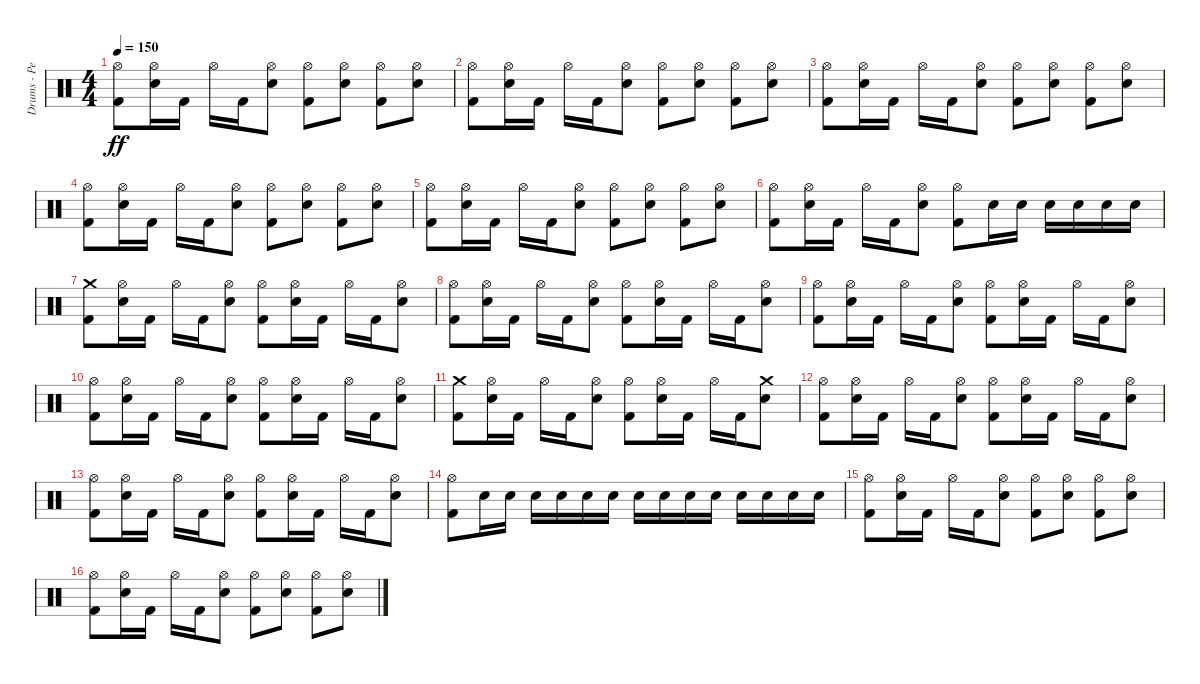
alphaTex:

\track ("Drums - Pete Finestone" "Drums - Pe") {instrument percussion}
\staff {score}
\articulation defaults
\ts (4 4)
\tempo 150
\clef neutral
\ks c
("Kick (hit) 2" "Hi-Hat (open)").8{dy ff} ("Electric Snare (hit)" "Hi-Hat (open)").16 "Kick (hit) 2".16 "Hi-Hat (open)".16 "Kick (hit) 2".16 ("Electric Snare (hit)" "Hi-Hat (open)").8 ("Kick (hit) 2" "Hi-Hat (open)").8 ("Electric Snare (hit)" "Hi-Hat (open)").8 ("Kick (hit) 2" "Hi-Hat (open)").8 ("Electric Snare (hit)" "Hi-Hat (open)").8 |
("Kick (hit) 2" "Hi-Hat (open)").8 ("Electric Snare (hit)" "Hi-Hat (open)").16 "Kick (hit) 2".16 "Hi-Hat (open)".16 "Kick (hit) 2".16 ("Electric Snare (hit)" "Hi-Hat (open)").8 ("Kick (hit) 2" "Hi-Hat (open)").8 ("Electric Snare (hit)" "Hi-Hat (open)").8 ("Kick (hit) 2" "Hi-Hat (open)").8 ("Electric Snare (hit)" "Hi-Hat (open)").8 |
("Kick (hit) 2" "Hi-Hat (open)").8 ("Electric Snare (hit)" "Hi-Hat (open)").16 "Kick (hit) 2".16 "Hi-Hat (open)".16 "Kick (hit) 2".16 ("Electric Snare (hit)" "Hi-Hat (open)").8 ("Kick (hit) 2" "Hi-Hat (open)").8 ("Electric Snare (hit)" "Hi-Hat (open)").8 ("Kick (hit) 2" "Hi-Hat (open)").8 ("Electric Snare (hit)" "Hi-Hat (open)").8 |
("Kick (hit) 2" "Hi-Hat (open)").8 ("Electric Snare (hit)" "Hi-Hat (open)").16 "Kick (hit) 2".16 "Hi-Hat (open)".16 "Kick (hit) 2".16 ("Electric Snare (hit)" "Hi-Hat (open)").8 ("Kick (hit) 2" "Hi-Hat (open)").8 ("Electric Snare (hit)" "Hi-Hat (open)").8 ("Kick (hit) 2" "Hi-Hat (open)").8 ("Electric Snare (hit)" "Hi-Hat (open)").8 |
("Kick (hit) 2" "Hi-Hat (open)").8 ("Electric Snare (hit)" "Hi-Hat (open)").16 "Kick (hit) 2".16 "Hi-Hat (open)".16 "Kick (hit) 2".16 ("Electric Snare (hit)" "Hi-Hat (open)").8 ("Kick (hit) 2" "Hi-Hat (open)").8 ("Electric Snare (hit)" "Hi-Hat (open)").8 ("Kick (hit) 2" "Hi-Hat (open)").8 ("Electric Snare (hit)" "Hi-Hat (open)").8 |
("Kick (hit) 2" "Hi-Hat (open)").8 ("Electric Snare (hit)" "Hi-Hat (open)").16 "Kick (hit) 2".16 "Hi-Hat (open)".16 "Kick (hit) 2".16 ("Electric Snare (hit)" "Hi-Hat (open)").8 ("Kick (hit) 2" "Hi-Hat (open)").8 "Electric Snare (hit)".16 "Electric Snare (hit)".16 "Electric Snare (hit)".16 "Electric Snare (hit)".16 "Electric Snare (hit)".16 "Electric Snare (hit)".16 |
("Crash medium (hit)" "Kick (hit) 2").8 ("Electric Snare (hit)" "Hi-Hat (open)").16 "Kick (hit) 2".16 "Hi-Hat (open)".16 "Kick (hit) 2".16 ("Electric Snare (hit)" "Hi-Hat (open)").8 ("Kick (hit) 2" "Hi-Hat (open)").8 ("Electric Snare (hit)" "Hi-Hat (open)").16 "Kick (hit) 2".16 "Hi-Hat (open)".16 "Kick (hit) 2".16 ("Electric Snare (hit)" "Hi-Hat (open)").8 |
("Kick (hit) 2" "Hi-Hat (open)").8 ("Electric Snare (hit)" "Hi-Hat (open)").16 "Kick (hit) 2".16 "Hi-Hat (open)".16 "Kick (hit) 2".16 ("Electric Snare (hit)" "Hi-Hat (open)").8 ("Kick (hit) 2" "Hi-Hat (open)").8 ("Electric Snare (hit)" "Hi-Hat (open)").16 "Kick (hit) 2".16 "Hi-Hat (open)".16 "Kick (hit) 2".16 ("Electric Snare (hit)" "Hi-Hat (open)").8 |
("Kick (hit) 2" "Hi-Hat (open)").8 ("Electric Snare (hit)" "Hi-Hat (open)").16 "Kick (hit) 2".16 "Hi-Hat (open)".16 "Kick (hit) 2".16 ("Electric Snare (hit)" "Hi-Hat (open)").8 ("Kick (hit) 2" "Hi-Hat (open)").8 ("Electric Snare (hit)" "Hi-Hat (open)").16 "Kick (hit) 2".16 "Hi-Hat (open)".16 "Kick (hit) 2".16 ("Electric Snare (hit)" "Hi-Hat (open)").8 |
("Kick (hit) 2" "Hi-Hat (open)").8 ("Electric Snare (hit)" "Hi-Hat (open)").16 "Kick (hit) 2".16 "Hi-Hat (open)".16 "Kick (hit) 2".16 ("Electric Snare (hit)" "Hi-Hat (open)").8 ("Kick (hit) 2" "Hi-Hat (open)").8 ("Electric Snare (hit)" "Hi-Hat (open)").16 "Kick (hit) 2".16 "Hi-Hat (open)".16 "Kick (hit) 2".16 ("Electric Snare (hit)" "Hi-Hat (open)").8 |
("Kick (hit) 2" "Crash medium (hit)").8 ("Electric Snare (hit)" "Hi-Hat (open)").16 "Kick (hit) 2".16 "Hi-Hat (open)".16 "Kick (hit) 2".16 ("Electric Snare (hit)" "Hi-Hat (open)").8 ("Kick (hit) 2" "Hi-Hat (open)").8 ("Electric Snare (hit)" "Hi-Hat (open)").16 "Kick (hit) 2".16 "Hi-Hat (open)".16 "Kick (hit) 2".16 ("Electric Snare (hit)" "Crash medium (hit)").8 |
("Kick (hit) 2" "Hi-Hat (open)").8 ("Electric Snare (hit)" "Hi-Hat (open)").16 "Kick (hit) 2".16 "Hi-Hat (open)".16 "Kick (hit) 2".16 ("Electric Snare (hit)" "Hi-Hat (open)").8 ("Kick (hit) 2" "Hi-Hat (open)").8 ("Electric Snare (hit)" "Hi-Hat (open)").16 "Kick (hit) 2".16 "Hi-Hat (open)".16 "Kick (hit) 2".16 ("Electric Snare (hit)" "Hi-Hat (open)").8 |
("Kick (hit) 2" "Hi-Hat (open)").8 ("Electric Snare (hit)" "Hi-Hat (open)").16 "Kick (hit) 2".16 "Hi-Hat (open)".16 "Kick (hit) 2".16 ("Electric Snare (hit)" "Hi-Hat (open)").8 ("Kick (hit) 2" "Hi-Hat (open)").8 ("Electric Snare (hit)" "Hi-Hat (open)").16 "Kick (hit) 2".16 "Hi-Hat (open)".16 "Kick (hit) 2".16 ("Electric Snare (hit)" "Hi-Hat (open)").8 |
("Kick (hit) 2" "Hi-Hat (open)").8 "Electric Snare (hit)".16 "Electric Snare (hit)".16 "Electric Snare (hit)".16 "Electric Snare (hit)".16 "Electric Snare (hit)".16 "Electric Snare (hit)".16 "Electric Snare (hit)".16 "Electric Snare (hit)".16 "Electric Snare (hit)".16 "Electric Snare (hit)".16 "Electric Snare (hit)".16 "Electric Snare (hit)".16 "Electric Snare (hit)".16 "Electric Snare (hit)".16 |
("Kick (hit) 2" "Hi-Hat (open)").8 ("Electric Snare (hit)" "Hi-Hat (open)").16 "Kick (hit) 2".16 "Hi-Hat (open)".16 "Kick (hit) 2".16 ("Electric Snare (hit)" "Hi-Hat (open)").8 ("Kick (hit) 2" "Hi-Hat (open)").8 ("Electric Snare (hit)" "Hi-Hat (open)").8 ("Kick (hit) 2" "Hi-Hat (open)").8 ("Electric Snare (hit)" "Hi-Hat (open)").8 |
("Kick (hit) 2" "Hi-Hat (open)").8 ("Electric Snare (hit)" "Hi-Hat (open)").16 "Kick (hit) 2".16 "Hi-Hat (open)".16 "Kick (hit) 2".16 ("Electric Snare (hit)" "Hi-Hat (open)").8 ("Kick (hit) 2" "Hi-Hat (open)").8 ("Electric Snare (hit)" "Hi-Hat (open)").8 ("Kick (hit) 2" "Hi-Hat (open)").8 ("Electric Snare (hit)" "Hi-Hat (open)").8
